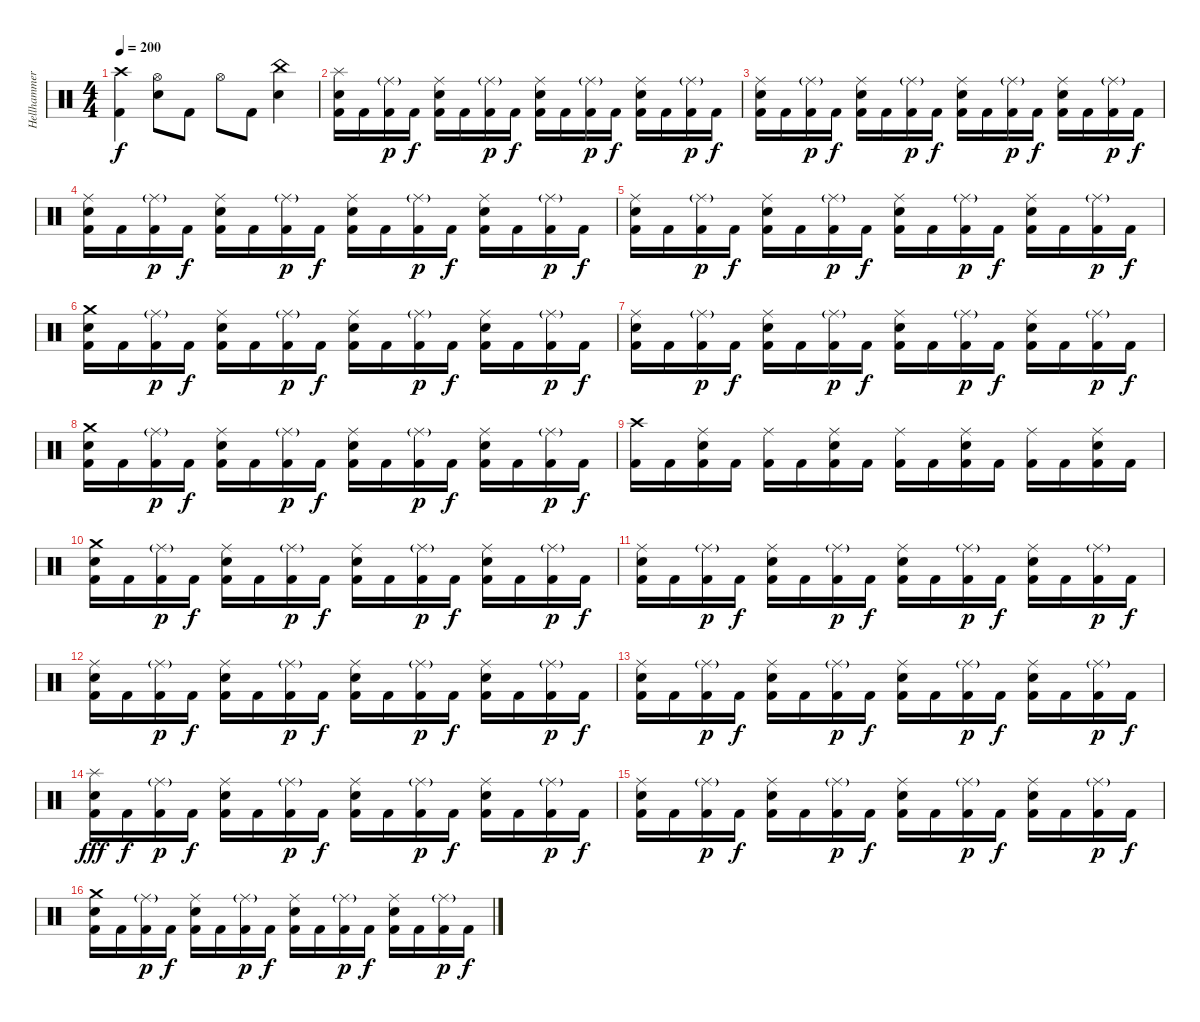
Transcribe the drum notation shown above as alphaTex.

\track ("Hellhammer" "Hellhammer") {instrument percussion}
\staff {score}
\articulation defaults
\ts (4 4)
\tempo 200
\clef neutral
\ks c
("Kick (hit) 2" "Crash high (hit)").4{dy f} ("Electric Snare (hit)" "Hi-Hat (open)").8 "Kick (hit) 2".8 "Hi-Hat (open)".8 "Kick (hit) 2".8 ("Electric Snare (hit)" "China (hit)").4 |
("Kick (hit) 2" "Electric Snare (hit)" "Splash (hit)").16 "Kick (hit) 2".16 ("Kick (hit) 2" "Ride (middle)"{g}).16{dy p} "Kick (hit) 2".16{dy f} ("Kick (hit) 2" "Electric Snare (hit)" "Ride (middle)").16 "Kick (hit) 2".16 ("Kick (hit) 2" "Ride (middle)"{g}).16{dy p} "Kick (hit) 2".16{dy f} ("Kick (hit) 2" "Electric Snare (hit)" "Ride (middle)").16 "Kick (hit) 2".16 ("Kick (hit) 2" "Ride (middle)"{g}).16{dy p} "Kick (hit) 2".16{dy f} ("Kick (hit) 2" "Electric Snare (hit)" "Ride (middle)").16 "Kick (hit) 2".16 ("Kick (hit) 2" "Ride (middle)"{g}).16{dy p} "Kick (hit) 2".16{dy f} |
("Kick (hit) 2" "Electric Snare (hit)" "Ride (middle)").16 "Kick (hit) 2".16 ("Kick (hit) 2" "Ride (middle)"{g}).16{dy p} "Kick (hit) 2".16{dy f} ("Kick (hit) 2" "Electric Snare (hit)" "Ride (middle)").16 "Kick (hit) 2".16 ("Kick (hit) 2" "Ride (middle)"{g}).16{dy p} "Kick (hit) 2".16{dy f} ("Kick (hit) 2" "Electric Snare (hit)" "Ride (middle)").16 "Kick (hit) 2".16 ("Kick (hit) 2" "Ride (middle)"{g}).16{dy p} "Kick (hit) 2".16{dy f} ("Kick (hit) 2" "Electric Snare (hit)" "Ride (middle)").16 "Kick (hit) 2".16 ("Kick (hit) 2" "Ride (middle)"{g}).16{dy p} "Kick (hit) 2".16{dy f} |
("Kick (hit) 2" "Electric Snare (hit)" "Ride (middle)").16 "Kick (hit) 2".16 ("Kick (hit) 2" "Ride (middle)"{g}).16{dy p} "Kick (hit) 2".16{dy f} ("Kick (hit) 2" "Electric Snare (hit)" "Ride (middle)").16 "Kick (hit) 2".16 ("Kick (hit) 2" "Ride (middle)"{g}).16{dy p} "Kick (hit) 2".16{dy f} ("Kick (hit) 2" "Electric Snare (hit)" "Ride (middle)").16 "Kick (hit) 2".16 ("Kick (hit) 2" "Ride (middle)"{g}).16{dy p} "Kick (hit) 2".16{dy f} ("Kick (hit) 2" "Electric Snare (hit)" "Ride (middle)").16 "Kick (hit) 2".16 ("Kick (hit) 2" "Ride (middle)"{g}).16{dy p} "Kick (hit) 2".16{dy f} |
("Kick (hit) 2" "Electric Snare (hit)" "Ride (middle)").16 "Kick (hit) 2".16 ("Kick (hit) 2" "Ride (middle)"{g}).16{dy p} "Kick (hit) 2".16{dy f} ("Kick (hit) 2" "Electric Snare (hit)" "Ride (middle)").16 "Kick (hit) 2".16 ("Kick (hit) 2" "Ride (middle)"{g}).16{dy p} "Kick (hit) 2".16{dy f} ("Kick (hit) 2" "Electric Snare (hit)" "Ride (middle)").16 "Kick (hit) 2".16 ("Kick (hit) 2" "Ride (middle)"{g}).16{dy p} "Kick (hit) 2".16{dy f} ("Kick (hit) 2" "Electric Snare (hit)" "Ride (middle)").16 "Kick (hit) 2".16 ("Kick (hit) 2" "Ride (middle)"{g}).16{dy p} "Kick (hit) 2".16{dy f} |
("Kick (hit) 2" "Electric Snare (hit)" "Crash medium (hit)").16 "Kick (hit) 2".16 ("Kick (hit) 2" "Ride (middle)"{g}).16{dy p} "Kick (hit) 2".16{dy f} ("Kick (hit) 2" "Electric Snare (hit)" "Ride (middle)").16 "Kick (hit) 2".16 ("Kick (hit) 2" "Ride (middle)"{g}).16{dy p} "Kick (hit) 2".16{dy f} ("Kick (hit) 2" "Electric Snare (hit)" "Ride (middle)").16 "Kick (hit) 2".16 ("Kick (hit) 2" "Ride (middle)"{g}).16{dy p} "Kick (hit) 2".16{dy f} ("Kick (hit) 2" "Electric Snare (hit)" "Ride (middle)").16 "Kick (hit) 2".16 ("Kick (hit) 2" "Ride (middle)"{g}).16{dy p} "Kick (hit) 2".16{dy f} |
("Kick (hit) 2" "Electric Snare (hit)" "Ride (middle)").16 "Kick (hit) 2".16 ("Kick (hit) 2" "Ride (middle)"{g}).16{dy p} "Kick (hit) 2".16{dy f} ("Kick (hit) 2" "Electric Snare (hit)" "Ride (middle)").16 "Kick (hit) 2".16 ("Kick (hit) 2" "Ride (middle)"{g}).16{dy p} "Kick (hit) 2".16{dy f} ("Kick (hit) 2" "Electric Snare (hit)" "Ride (middle)").16 "Kick (hit) 2".16 ("Kick (hit) 2" "Ride (middle)"{g}).16{dy p} "Kick (hit) 2".16{dy f} ("Kick (hit) 2" "Electric Snare (hit)" "Ride (middle)").16 "Kick (hit) 2".16 ("Kick (hit) 2" "Ride (middle)"{g}).16{dy p} "Kick (hit) 2".16{dy f} |
("Kick (hit) 2" "Electric Snare (hit)" "Crash medium (hit)").16 "Kick (hit) 2".16 ("Kick (hit) 2" "Ride (middle)"{g}).16{dy p} "Kick (hit) 2".16{dy f} ("Kick (hit) 2" "Electric Snare (hit)" "Ride (middle)").16 "Kick (hit) 2".16 ("Kick (hit) 2" "Ride (middle)"{g}).16{dy p} "Kick (hit) 2".16{dy f} ("Kick (hit) 2" "Electric Snare (hit)" "Ride (middle)").16 "Kick (hit) 2".16 ("Kick (hit) 2" "Ride (middle)"{g}).16{dy p} "Kick (hit) 2".16{dy f} ("Kick (hit) 2" "Electric Snare (hit)" "Ride (middle)").16 "Kick (hit) 2".16 ("Kick (hit) 2" "Ride (middle)"{g}).16{dy p} "Kick (hit) 2".16{dy f} |
("Kick (hit) 2" "Crash high (hit)").16 "Kick (hit) 2".16 ("Kick (hit) 2" "Electric Snare (hit)" "Ride (middle)").16 "Kick (hit) 2".16 ("Kick (hit) 2" "Ride (middle)").16 "Kick (hit) 2".16 ("Kick (hit) 2" "Electric Snare (hit)" "Ride (middle)").16 "Kick (hit) 2".16 ("Kick (hit) 2" "Ride (middle)").16 "Kick (hit) 2".16 ("Kick (hit) 2" "Electric Snare (hit)" "Ride (middle)").16 "Kick (hit) 2".16 ("Kick (hit) 2" "Ride (middle)").16 "Kick (hit) 2".16 ("Kick (hit) 2" "Electric Snare (hit)" "Ride (middle)").16 "Kick (hit) 2".16 |
("Kick (hit) 2" "Electric Snare (hit)" "Crash medium (hit)").16 "Kick (hit) 2".16 ("Kick (hit) 2" "Ride (middle)"{g}).16{dy p} "Kick (hit) 2".16{dy f} ("Kick (hit) 2" "Electric Snare (hit)" "Ride (middle)").16 "Kick (hit) 2".16 ("Kick (hit) 2" "Ride (middle)"{g}).16{dy p} "Kick (hit) 2".16{dy f} ("Kick (hit) 2" "Electric Snare (hit)" "Ride (middle)").16 "Kick (hit) 2".16 ("Kick (hit) 2" "Ride (middle)"{g}).16{dy p} "Kick (hit) 2".16{dy f} ("Kick (hit) 2" "Electric Snare (hit)" "Ride (middle)").16 "Kick (hit) 2".16 ("Kick (hit) 2" "Ride (middle)"{g}).16{dy p} "Kick (hit) 2".16{dy f} |
("Kick (hit) 2" "Electric Snare (hit)" "Ride (middle)").16 "Kick (hit) 2".16 ("Kick (hit) 2" "Ride (middle)"{g}).16{dy p} "Kick (hit) 2".16{dy f} ("Kick (hit) 2" "Electric Snare (hit)" "Ride (middle)").16 "Kick (hit) 2".16 ("Kick (hit) 2" "Ride (middle)"{g}).16{dy p} "Kick (hit) 2".16{dy f} ("Kick (hit) 2" "Electric Snare (hit)" "Ride (middle)").16 "Kick (hit) 2".16 ("Kick (hit) 2" "Ride (middle)"{g}).16{dy p} "Kick (hit) 2".16{dy f} ("Kick (hit) 2" "Electric Snare (hit)" "Ride (middle)").16 "Kick (hit) 2".16 ("Kick (hit) 2" "Ride (middle)"{g}).16{dy p} "Kick (hit) 2".16{dy f} |
("Kick (hit) 2" "Electric Snare (hit)" "Ride (middle)").16 "Kick (hit) 2".16 ("Kick (hit) 2" "Ride (middle)"{g}).16{dy p} "Kick (hit) 2".16{dy f} ("Kick (hit) 2" "Electric Snare (hit)" "Ride (middle)").16 "Kick (hit) 2".16 ("Kick (hit) 2" "Ride (middle)"{g}).16{dy p} "Kick (hit) 2".16{dy f} ("Kick (hit) 2" "Electric Snare (hit)" "Ride (middle)").16 "Kick (hit) 2".16 ("Kick (hit) 2" "Ride (middle)"{g}).16{dy p} "Kick (hit) 2".16{dy f} ("Kick (hit) 2" "Electric Snare (hit)" "Ride (middle)").16 "Kick (hit) 2".16 ("Kick (hit) 2" "Ride (middle)"{g}).16{dy p} "Kick (hit) 2".16{dy f} |
("Kick (hit) 2" "Electric Snare (hit)" "Ride (middle)").16 "Kick (hit) 2".16 ("Kick (hit) 2" "Ride (middle)"{g}).16{dy p} "Kick (hit) 2".16{dy f} ("Kick (hit) 2" "Electric Snare (hit)" "Ride (middle)").16 "Kick (hit) 2".16 ("Kick (hit) 2" "Ride (middle)"{g}).16{dy p} "Kick (hit) 2".16{dy f} ("Kick (hit) 2" "Electric Snare (hit)" "Ride (middle)").16 "Kick (hit) 2".16 ("Kick (hit) 2" "Ride (middle)"{g}).16{dy p} "Kick (hit) 2".16{dy f} ("Kick (hit) 2" "Electric Snare (hit)" "Ride (middle)").16 "Kick (hit) 2".16 ("Kick (hit) 2" "Ride (middle)"{g}).16{dy p} "Kick (hit) 2".16{dy f} |
("Kick (hit) 2" "Electric Snare (hit)" "Splash (hit)").16{dy fff} "Kick (hit) 2".16{dy f} ("Kick (hit) 2" "Ride (middle)"{g}).16{dy p} "Kick (hit) 2".16{dy f} ("Kick (hit) 2" "Electric Snare (hit)" "Ride (middle)").16 "Kick (hit) 2".16 ("Kick (hit) 2" "Ride (middle)"{g}).16{dy p} "Kick (hit) 2".16{dy f} ("Kick (hit) 2" "Electric Snare (hit)" "Ride (middle)").16 "Kick (hit) 2".16 ("Kick (hit) 2" "Ride (middle)"{g}).16{dy p} "Kick (hit) 2".16{dy f} ("Kick (hit) 2" "Electric Snare (hit)" "Ride (middle)").16 "Kick (hit) 2".16 ("Kick (hit) 2" "Ride (middle)"{g}).16{dy p} "Kick (hit) 2".16{dy f} |
("Kick (hit) 2" "Electric Snare (hit)" "Ride (middle)").16 "Kick (hit) 2".16 ("Kick (hit) 2" "Ride (middle)"{g}).16{dy p} "Kick (hit) 2".16{dy f} ("Kick (hit) 2" "Electric Snare (hit)" "Ride (middle)").16 "Kick (hit) 2".16 ("Kick (hit) 2" "Ride (middle)"{g}).16{dy p} "Kick (hit) 2".16{dy f} ("Kick (hit) 2" "Electric Snare (hit)" "Ride (middle)").16 "Kick (hit) 2".16 ("Kick (hit) 2" "Ride (middle)"{g}).16{dy p} "Kick (hit) 2".16{dy f} ("Kick (hit) 2" "Electric Snare (hit)" "Ride (middle)").16 "Kick (hit) 2".16 ("Kick (hit) 2" "Ride (middle)"{g}).16{dy p} "Kick (hit) 2".16{dy f} |
("Kick (hit) 2" "Electric Snare (hit)" "Crash medium (hit)").16 "Kick (hit) 2".16 ("Kick (hit) 2" "Ride (middle)"{g}).16{dy p} "Kick (hit) 2".16{dy f} ("Kick (hit) 2" "Electric Snare (hit)" "Ride (middle)").16 "Kick (hit) 2".16 ("Kick (hit) 2" "Ride (middle)"{g}).16{dy p} "Kick (hit) 2".16{dy f} ("Kick (hit) 2" "Electric Snare (hit)" "Ride (middle)").16 "Kick (hit) 2".16 ("Kick (hit) 2" "Ride (middle)"{g}).16{dy p} "Kick (hit) 2".16{dy f} ("Kick (hit) 2" "Electric Snare (hit)" "Ride (middle)").16 "Kick (hit) 2".16 ("Kick (hit) 2" "Ride (middle)"{g}).16{dy p} "Kick (hit) 2".16{dy f}
